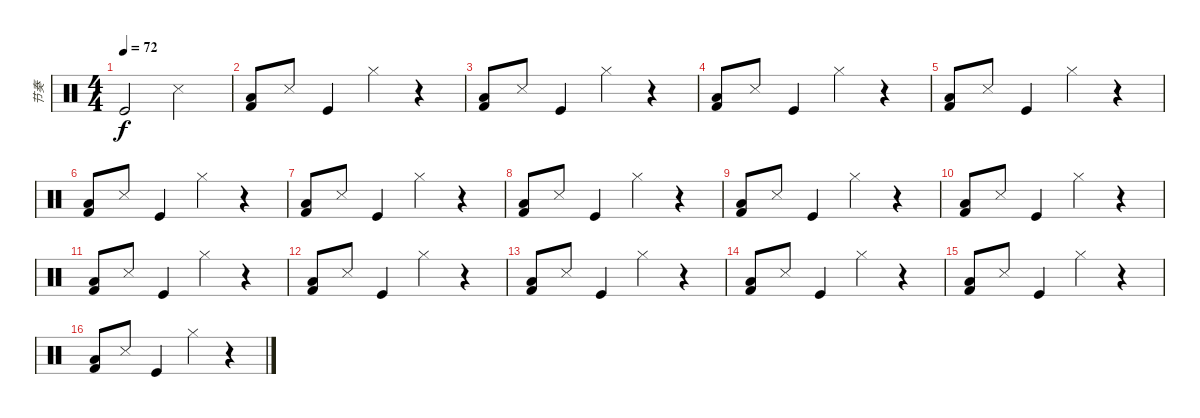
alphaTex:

\track ("节奏" "节奏") {instrument percussion}
\staff {score}
\articulation defaults
\ts (4 4)
\tempo 72
\clef neutral
\ks c "Kick (hit)".2{dy f} "Metronome (hit)".2
|
("Low Floor Tom (hit)" "Kick (hit) 2").8 "Metronome (hit)".8 "Kick (hit)".4 "Hi-Hat (closed)".4 r.4 |
("Low Floor Tom (hit)" "Kick (hit) 2").8 "Metronome (hit)".8 "Kick (hit)".4 "Hi-Hat (closed)".4 r.4 |
("Low Floor Tom (hit)" "Kick (hit) 2").8 "Metronome (hit)".8 "Kick (hit)".4 "Hi-Hat (closed)".4 r.4 |
("Low Floor Tom (hit)" "Kick (hit) 2").8 "Metronome (hit)".8 "Kick (hit)".4 "Hi-Hat (closed)".4 r.4 |
("Low Floor Tom (hit)" "Kick (hit) 2").8 "Metronome (hit)".8 "Kick (hit)".4 "Hi-Hat (closed)".4 r.4 |
("Low Floor Tom (hit)" "Kick (hit) 2").8 "Metronome (hit)".8 "Kick (hit)".4 "Hi-Hat (closed)".4 r.4 |
("Low Floor Tom (hit)" "Kick (hit) 2").8 "Metronome (hit)".8 "Kick (hit)".4 "Hi-Hat (closed)".4 r.4 |
("Low Floor Tom (hit)" "Kick (hit) 2").8 "Metronome (hit)".8 "Kick (hit)".4 "Hi-Hat (closed)".4 r.4 |
("Low Floor Tom (hit)" "Kick (hit) 2").8 "Metronome (hit)".8 "Kick (hit)".4 "Hi-Hat (closed)".4 r.4 |
("Low Floor Tom (hit)" "Kick (hit) 2").8 "Metronome (hit)".8 "Kick (hit)".4 "Hi-Hat (closed)".4 r.4 |
("Low Floor Tom (hit)" "Kick (hit) 2").8 "Metronome (hit)".8 "Kick (hit)".4 "Hi-Hat (closed)".4 r.4 |
("Low Floor Tom (hit)" "Kick (hit) 2").8 "Metronome (hit)".8 "Kick (hit)".4 "Hi-Hat (closed)".4 r.4 |
("Low Floor Tom (hit)" "Kick (hit) 2").8 "Metronome (hit)".8 "Kick (hit)".4 "Hi-Hat (closed)".4 r.4 |
("Low Floor Tom (hit)" "Kick (hit) 2").8 "Metronome (hit)".8 "Kick (hit)".4 "Hi-Hat (closed)".4 r.4 |
("Low Floor Tom (hit)" "Kick (hit) 2").8 "Metronome (hit)".8 "Kick (hit)".4 "Hi-Hat (closed)".4 r.4
